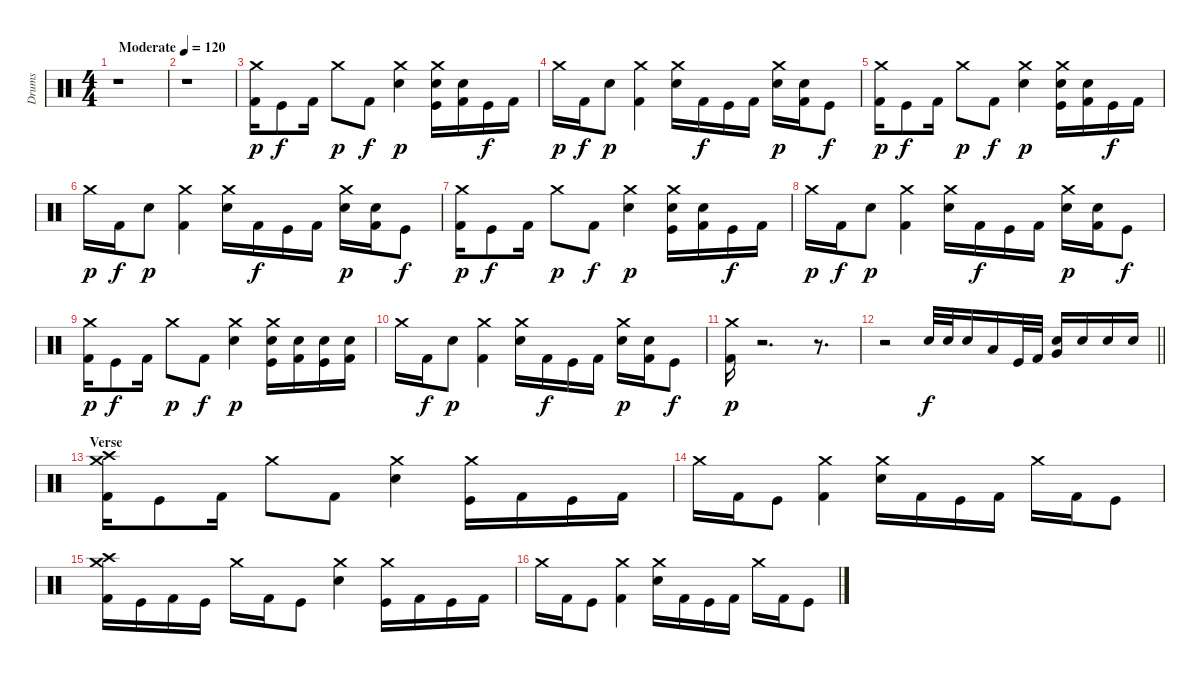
\track ("Drums" "Drums") {instrument percussion}
\staff {score}
\articulation defaults
\ts (4 4)
\tempo (120 "Moderate")
\clef neutral
\ks c
r.1{dy p} |
r.1 |
("Crash medium (hit)" "Kick (hit) 2").16 "Kick (hit)".8{dy f} "Kick (hit) 2".16 "Crash medium (hit)".8{dy p} "Kick (hit) 2".8{dy f} ("Crash medium (hit)" "Electric Snare (hit)").4{dy p} ("Crash medium (hit)" "Electric Snare (hit)" "Kick (hit)").16 ("Electric Snare (hit)" "Kick (hit) 2").16 "Kick (hit)".16{dy f} "Kick (hit) 2".16 |
"Crash medium (hit)".16{dy p} "Kick (hit) 2".16{dy f} "Electric Snare (hit)".8{dy p} ("Crash medium (hit)" "Kick (hit) 2").4 ("Crash medium (hit)" "Electric Snare (hit)").16 "Kick (hit) 2".16{dy f} "Kick (hit)".16 "Kick (hit) 2".16 ("Crash medium (hit)" "Electric Snare (hit)").16{dy p} ("Electric Snare (hit)" "Kick (hit) 2").16 "Kick (hit)".8{dy f} |
("Crash medium (hit)" "Kick (hit) 2").16{dy p} "Kick (hit)".8{dy f} "Kick (hit) 2".16 "Crash medium (hit)".8{dy p} "Kick (hit) 2".8{dy f} ("Crash medium (hit)" "Electric Snare (hit)").4{dy p} ("Crash medium (hit)" "Electric Snare (hit)" "Kick (hit)").16 ("Electric Snare (hit)" "Kick (hit) 2").16 "Kick (hit)".16{dy f} "Kick (hit) 2".16 |
"Crash medium (hit)".16{dy p} "Kick (hit) 2".16{dy f} "Electric Snare (hit)".8{dy p} ("Crash medium (hit)" "Kick (hit) 2").4 ("Crash medium (hit)" "Electric Snare (hit)").16 "Kick (hit) 2".16{dy f} "Kick (hit)".16 "Kick (hit) 2".16 ("Crash medium (hit)" "Electric Snare (hit)").16{dy p} ("Electric Snare (hit)" "Kick (hit) 2").16 "Kick (hit)".8{dy f} |
("Crash medium (hit)" "Kick (hit) 2").16{dy p} "Kick (hit)".8{dy f} "Kick (hit) 2".16 "Crash medium (hit)".8{dy p} "Kick (hit) 2".8{dy f} ("Crash medium (hit)" "Electric Snare (hit)").4{dy p} ("Crash medium (hit)" "Electric Snare (hit)" "Kick (hit)").16 ("Electric Snare (hit)" "Kick (hit) 2").16 "Kick (hit)".16{dy f} "Kick (hit) 2".16 |
"Crash medium (hit)".16{dy p} "Kick (hit) 2".16{dy f} "Electric Snare (hit)".8{dy p} ("Crash medium (hit)" "Kick (hit) 2").4 ("Crash medium (hit)" "Electric Snare (hit)").16 "Kick (hit) 2".16{dy f} "Kick (hit)".16 "Kick (hit) 2".16 ("Crash medium (hit)" "Electric Snare (hit)").16{dy p} ("Electric Snare (hit)" "Kick (hit) 2").16 "Kick (hit)".8{dy f} |
("Crash medium (hit)" "Kick (hit) 2").16{dy p} "Kick (hit)".8{dy f} "Kick (hit) 2".16 "Crash medium (hit)".8{dy p} "Kick (hit) 2".8{dy f} ("Crash medium (hit)" "Electric Snare (hit)").4{dy p} ("Crash medium (hit)" "Electric Snare (hit)" "Kick (hit)").16 ("Electric Snare (hit)" "Kick (hit) 2").16 ("Electric Snare (hit)" "Kick (hit)").16 ("Electric Snare (hit)" "Kick (hit) 2").16 |
"Crash medium (hit)".16 "Kick (hit) 2".16{dy f} "Electric Snare (hit)".8{dy p} ("Crash medium (hit)" "Kick (hit) 2").4 ("Crash medium (hit)" "Electric Snare (hit)").16 "Kick (hit) 2".16{dy f} "Kick (hit)".16 "Kick (hit) 2".16 ("Crash medium (hit)" "Electric Snare (hit)").16{dy p} ("Electric Snare (hit)" "Kick (hit) 2").16 "Kick (hit)".8{dy f} |
("Crash medium (hit)" "Kick (hit) 2").16{dy p} r.2{d} r.8{d} |
\barLineRight lightlight
r.2 "Electric Snare (hit)".32{dy f} "Electric Snare (hit)".32 "Electric Snare (hit)".16 "Low Tom (hit)".16 "Kick (hit)".32 "Kick (hit) 2".32 ("Electric Snare (hit)" "Very Low Tom (hit)").16 "Electric Snare (hit)".16 "Electric Snare (hit)".16 "Electric Snare (hit)".16 |
\section ("" "Verse")
("Crash medium (hit)" "Crash high (hit)" "Kick (hit) 2").16 "Kick (hit)".8 "Kick (hit) 2".16 "Crash medium (hit)".8 "Kick (hit) 2".8 ("Crash medium (hit)" "Electric Snare (hit)").4 ("Crash medium (hit)" "Kick (hit)").16 "Kick (hit) 2".16 "Kick (hit)".16 "Kick (hit) 2".16 |
"Crash medium (hit)".16 "Kick (hit) 2".16 "Kick (hit)".8 ("Crash medium (hit)" "Kick (hit) 2").4 ("Crash medium (hit)" "Electric Snare (hit)").16 "Kick (hit) 2".16 "Kick (hit)".16 "Kick (hit) 2".16 "Crash medium (hit)".16 "Kick (hit) 2".16 "Kick (hit)".8 |
("Crash medium (hit)" "Crash high (hit)" "Kick (hit) 2").16 "Kick (hit)".16 "Kick (hit) 2".16 "Kick (hit)".16 "Crash medium (hit)".16 "Kick (hit) 2".16 "Kick (hit)".8 ("Crash medium (hit)" "Electric Snare (hit)").4 ("Crash medium (hit)" "Kick (hit)").16 "Kick (hit) 2".16 "Kick (hit)".16 "Kick (hit) 2".16 |
"Crash medium (hit)".16 "Kick (hit) 2".16 "Kick (hit)".8 ("Crash medium (hit)" "Kick (hit) 2").4 ("Crash medium (hit)" "Electric Snare (hit)").16 "Kick (hit) 2".16 "Kick (hit)".16 "Kick (hit) 2".16 "Crash medium (hit)".16 "Kick (hit) 2".16 "Kick (hit)".8
